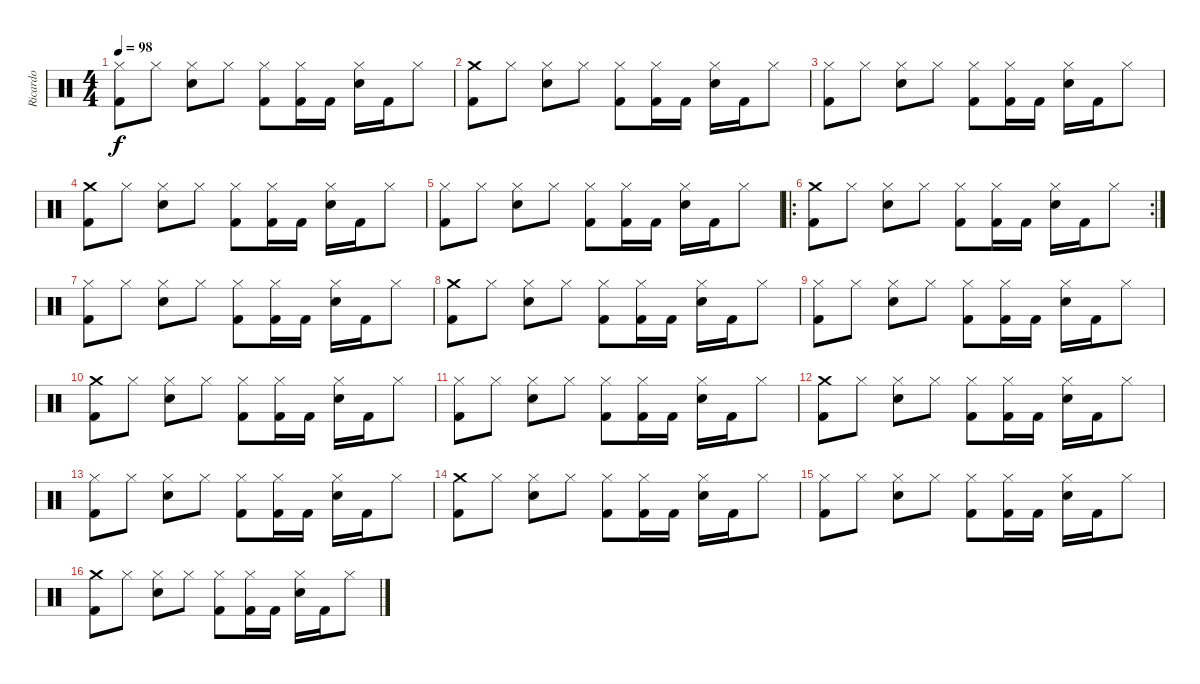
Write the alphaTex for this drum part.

\track ("Ricardo" "Ricardo") {instrument percussion}
\staff {score}
\articulation defaults
\ts (4 4)
\tempo 98
\clef neutral
\ks c
("Kick (hit) 2" "Hi-Hat (closed)").8{dy f} "Hi-Hat (closed)".8 ("Hi-Hat (closed)" "Snare (hit) 2").8 "Hi-Hat (closed)".8 ("Kick (hit) 2" "Hi-Hat (closed)").8 ("Kick (hit) 2" "Hi-Hat (closed)").16 "Kick (hit) 2".16 ("Hi-Hat (closed)" "Snare (hit) 2").16 "Kick (hit) 2".16 "Hi-Hat (closed)".8 |
("Kick (hit) 2" "Crash medium (hit)").8 "Hi-Hat (closed)".8 ("Hi-Hat (closed)" "Snare (hit) 2").8 "Hi-Hat (closed)".8 ("Kick (hit) 2" "Hi-Hat (closed)").8 ("Kick (hit) 2" "Hi-Hat (closed)").16 "Kick (hit) 2".16 ("Hi-Hat (closed)" "Snare (hit) 2").16 "Kick (hit) 2".16 "Hi-Hat (closed)".8 |
("Kick (hit) 2" "Hi-Hat (closed)").8 "Hi-Hat (closed)".8 ("Hi-Hat (closed)" "Snare (hit) 2").8 "Hi-Hat (closed)".8 ("Kick (hit) 2" "Hi-Hat (closed)").8 ("Kick (hit) 2" "Hi-Hat (closed)").16 "Kick (hit) 2".16 ("Hi-Hat (closed)" "Snare (hit) 2").16 "Kick (hit) 2".16 "Hi-Hat (closed)".8 |
("Kick (hit) 2" "Crash medium (hit)").8 "Hi-Hat (closed)".8 ("Hi-Hat (closed)" "Snare (hit) 2").8 "Hi-Hat (closed)".8 ("Kick (hit) 2" "Hi-Hat (closed)").8 ("Kick (hit) 2" "Hi-Hat (closed)").16 "Kick (hit) 2".16 ("Hi-Hat (closed)" "Snare (hit) 2").16 "Kick (hit) 2".16 "Hi-Hat (closed)".8 |
("Kick (hit) 2" "Hi-Hat (closed)").8 "Hi-Hat (closed)".8 ("Hi-Hat (closed)" "Snare (hit) 2").8 "Hi-Hat (closed)".8 ("Kick (hit) 2" "Hi-Hat (closed)").8 ("Kick (hit) 2" "Hi-Hat (closed)").16 "Kick (hit) 2".16 ("Hi-Hat (closed)" "Snare (hit) 2").16 "Kick (hit) 2".16 "Hi-Hat (closed)".8 |
\ro
\rc 2
("Kick (hit) 2" "Crash medium (hit)").8 "Hi-Hat (closed)".8 ("Hi-Hat (closed)" "Snare (hit) 2").8 "Hi-Hat (closed)".8 ("Kick (hit) 2" "Hi-Hat (closed)").8 ("Kick (hit) 2" "Hi-Hat (closed)").16 "Kick (hit) 2".16 ("Hi-Hat (closed)" "Snare (hit) 2").16 "Kick (hit) 2".16 "Hi-Hat (closed)".8 |
("Kick (hit) 2" "Hi-Hat (closed)").8 "Hi-Hat (closed)".8 ("Hi-Hat (closed)" "Snare (hit) 2").8 "Hi-Hat (closed)".8 ("Kick (hit) 2" "Hi-Hat (closed)").8 ("Kick (hit) 2" "Hi-Hat (closed)").16 "Kick (hit) 2".16 ("Hi-Hat (closed)" "Snare (hit) 2").16 "Kick (hit) 2".16 "Hi-Hat (closed)".8 |
("Kick (hit) 2" "Crash medium (hit)").8 "Hi-Hat (closed)".8 ("Hi-Hat (closed)" "Snare (hit) 2").8 "Hi-Hat (closed)".8 ("Kick (hit) 2" "Hi-Hat (closed)").8 ("Kick (hit) 2" "Hi-Hat (closed)").16 "Kick (hit) 2".16 ("Hi-Hat (closed)" "Snare (hit) 2").16 "Kick (hit) 2".16 "Hi-Hat (closed)".8 |
("Kick (hit) 2" "Hi-Hat (closed)").8 "Hi-Hat (closed)".8 ("Hi-Hat (closed)" "Snare (hit) 2").8 "Hi-Hat (closed)".8 ("Kick (hit) 2" "Hi-Hat (closed)").8 ("Kick (hit) 2" "Hi-Hat (closed)").16 "Kick (hit) 2".16 ("Hi-Hat (closed)" "Snare (hit) 2").16 "Kick (hit) 2".16 "Hi-Hat (closed)".8 |
("Kick (hit) 2" "Crash medium (hit)").8 "Hi-Hat (closed)".8 ("Hi-Hat (closed)" "Snare (hit) 2").8 "Hi-Hat (closed)".8 ("Kick (hit) 2" "Hi-Hat (closed)").8 ("Kick (hit) 2" "Hi-Hat (closed)").16 "Kick (hit) 2".16 ("Hi-Hat (closed)" "Snare (hit) 2").16 "Kick (hit) 2".16 "Hi-Hat (closed)".8 |
("Kick (hit) 2" "Hi-Hat (closed)").8 "Hi-Hat (closed)".8 ("Hi-Hat (closed)" "Snare (hit) 2").8 "Hi-Hat (closed)".8 ("Kick (hit) 2" "Hi-Hat (closed)").8 ("Kick (hit) 2" "Hi-Hat (closed)").16 "Kick (hit) 2".16 ("Hi-Hat (closed)" "Snare (hit) 2").16 "Kick (hit) 2".16 "Hi-Hat (closed)".8 |
("Kick (hit) 2" "Crash medium (hit)").8 "Hi-Hat (closed)".8 ("Hi-Hat (closed)" "Snare (hit) 2").8 "Hi-Hat (closed)".8 ("Kick (hit) 2" "Hi-Hat (closed)").8 ("Kick (hit) 2" "Hi-Hat (closed)").16 "Kick (hit) 2".16 ("Hi-Hat (closed)" "Snare (hit) 2").16 "Kick (hit) 2".16 "Hi-Hat (closed)".8 |
("Kick (hit) 2" "Hi-Hat (closed)").8 "Hi-Hat (closed)".8 ("Hi-Hat (closed)" "Snare (hit) 2").8 "Hi-Hat (closed)".8 ("Kick (hit) 2" "Hi-Hat (closed)").8 ("Kick (hit) 2" "Hi-Hat (closed)").16 "Kick (hit) 2".16 ("Hi-Hat (closed)" "Snare (hit) 2").16 "Kick (hit) 2".16 "Hi-Hat (closed)".8 |
("Kick (hit) 2" "Crash medium (hit)").8 "Hi-Hat (closed)".8 ("Hi-Hat (closed)" "Snare (hit) 2").8 "Hi-Hat (closed)".8 ("Kick (hit) 2" "Hi-Hat (closed)").8 ("Kick (hit) 2" "Hi-Hat (closed)").16 "Kick (hit) 2".16 ("Hi-Hat (closed)" "Snare (hit) 2").16 "Kick (hit) 2".16 "Hi-Hat (closed)".8 |
("Kick (hit) 2" "Hi-Hat (closed)").8 "Hi-Hat (closed)".8 ("Hi-Hat (closed)" "Snare (hit) 2").8 "Hi-Hat (closed)".8 ("Kick (hit) 2" "Hi-Hat (closed)").8 ("Kick (hit) 2" "Hi-Hat (closed)").16 "Kick (hit) 2".16 ("Hi-Hat (closed)" "Snare (hit) 2").16 "Kick (hit) 2".16 "Hi-Hat (closed)".8 |
("Kick (hit) 2" "Crash medium (hit)").8 "Hi-Hat (closed)".8 ("Hi-Hat (closed)" "Snare (hit) 2").8 "Hi-Hat (closed)".8 ("Kick (hit) 2" "Hi-Hat (closed)").8 ("Kick (hit) 2" "Hi-Hat (closed)").16 "Kick (hit) 2".16 ("Hi-Hat (closed)" "Snare (hit) 2").16 "Kick (hit) 2".16 "Hi-Hat (closed)".8
